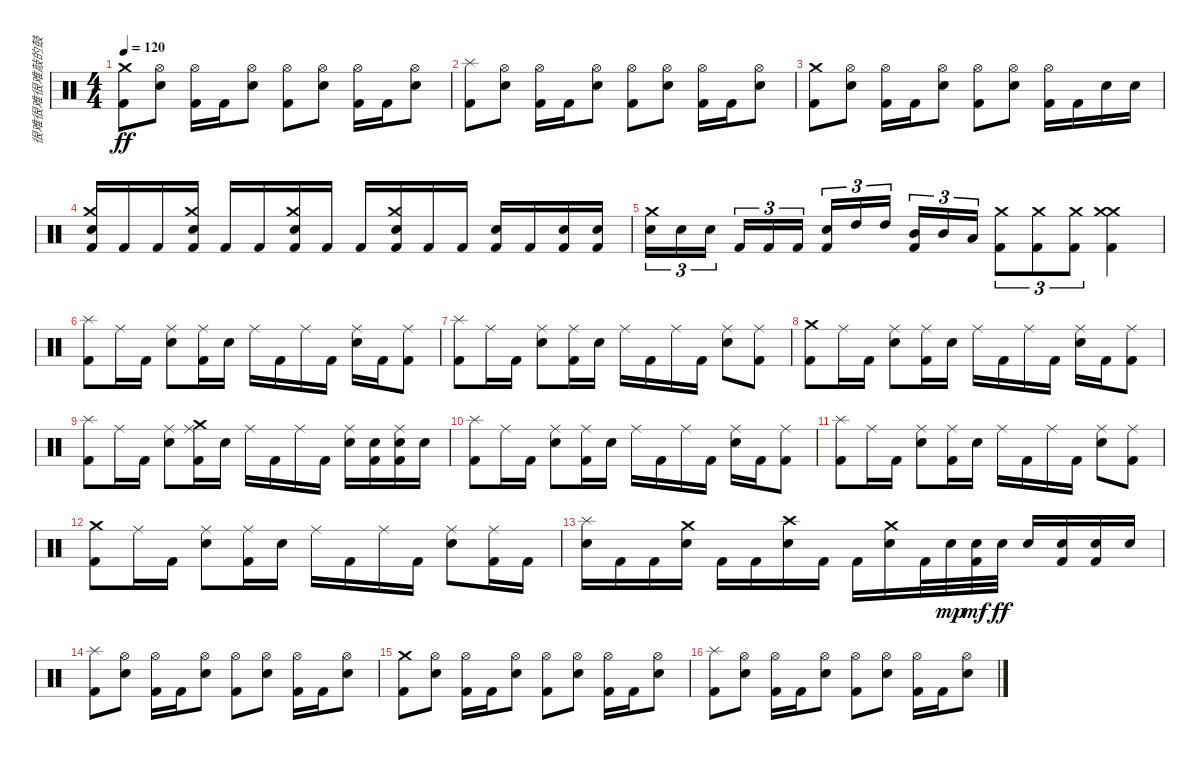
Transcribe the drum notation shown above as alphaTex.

\track ("很难很难很难敲的鼓" "很难很难很难敲的鼓") {instrument percussion}
\staff {score}
\articulation defaults
\ts (4 4)
\tempo 120
\clef neutral
\ks c
("Kick (hit) 2" "Crash medium (hit)").8{dy ff} ("Electric Snare (hit)" "Hi-Hat (open)").8 ("Kick (hit) 2" "Hi-Hat (open)").16 "Kick (hit) 2".16 ("Electric Snare (hit)" "Hi-Hat (open)").8 ("Kick (hit) 2" "Hi-Hat (open)").8 ("Electric Snare (hit)" "Hi-Hat (open)").8 ("Kick (hit) 2" "Hi-Hat (open)").16 "Kick (hit) 2".16 ("Electric Snare (hit)" "Hi-Hat (open)").8 |
("Kick (hit) 2" "Splash (hit)").8 ("Electric Snare (hit)" "Hi-Hat (open)").8 ("Kick (hit) 2" "Hi-Hat (open)").16 "Kick (hit) 2".16 ("Electric Snare (hit)" "Hi-Hat (open)").8 ("Kick (hit) 2" "Hi-Hat (open)").8 ("Electric Snare (hit)" "Hi-Hat (open)").8 ("Kick (hit) 2" "Hi-Hat (open)").16 "Kick (hit) 2".16 ("Electric Snare (hit)" "Hi-Hat (open)").8 |
("Kick (hit) 2" "Crash medium (hit)").8 ("Electric Snare (hit)" "Hi-Hat (open)").8 ("Kick (hit) 2" "Hi-Hat (open)").16 "Kick (hit) 2".16 ("Electric Snare (hit)" "Hi-Hat (open)").8 ("Kick (hit) 2" "Hi-Hat (open)").8 ("Electric Snare (hit)" "Hi-Hat (open)").8 ("Kick (hit) 2" "Hi-Hat (open)").16 "Kick (hit) 2".16 "Electric Snare (hit)".16 "Electric Snare (hit)".16 |
("Kick (hit) 2" "Electric Snare (hit)" "Crash medium (hit)").16 "Kick (hit) 2".16 "Kick (hit) 2".16 ("Kick (hit) 2" "Electric Snare (hit)" "Crash medium (hit)").16 "Kick (hit) 2".16 "Kick (hit) 2".16 ("Kick (hit) 2" "Electric Snare (hit)" "Crash medium (hit)").16 "Kick (hit) 2".16 "Kick (hit) 2".16 ("Kick (hit) 2" "Electric Snare (hit)" "Crash medium (hit)").16 "Kick (hit) 2".16 "Kick (hit) 2".16 ("Kick (hit) 2" "Electric Snare (hit)").16 "Kick (hit) 2".16 ("Kick (hit) 2" "Electric Snare (hit)").16 ("Kick (hit) 2" "Electric Snare (hit)").16 |
("Electric Snare (hit)" "Crash medium (hit)").16{tu (3 2)} "Electric Snare (hit)".16{tu (3 2)} "Electric Snare (hit)".16{tu (3 2) beam splitsecondary} "Kick (hit) 2".16{tu (3 2)} "Kick (hit) 2".16{tu (3 2)} "Kick (hit) 2".16{tu (3 2)} ("Kick (hit) 2" "Electric Snare (hit)").16{tu (3 2)} "High Tom (hit)".16{tu (3 2)} "High Tom (hit)".16{tu (3 2) beam splitsecondary} ("Kick (hit) 2" "Mid Tom (hit)").16{tu (3 2)} "Mid Tom (hit)".16{tu (3 2)} "Low Floor Tom (hit)".16{tu (3 2)} ("Kick (hit) 2" "Crash medium (hit)").8{tu (3 2)} ("Kick (hit) 2" "Crash medium (hit)").8{tu (3 2)} ("Kick (hit) 2" "Crash medium (hit)").8{tu (3 2)} ("Kick (hit) 2" "Crash medium (hit)" "Crash medium (hit)").4 |
("Kick (hit) 2" "Splash (hit)").8 "Ride (middle)".16 "Kick (hit) 2".16 ("Ride (middle)" "Electric Snare (hit)").8 ("Ride (middle)" "Kick (hit) 2").16 "Electric Snare (hit)".16 "Ride (middle)".16 "Kick (hit) 2".16 "Ride (middle)".16 "Kick (hit) 2".16 ("Ride (middle)" "Electric Snare (hit)").16 "Kick (hit) 2".16 ("Ride (middle)" "Kick (hit) 2").8 |
("Kick (hit) 2" "Splash (hit)").8 "Ride (middle)".16 "Kick (hit) 2".16 ("Ride (middle)" "Electric Snare (hit)").8 ("Ride (middle)" "Kick (hit) 2").16 "Electric Snare (hit)".16 "Ride (middle)".16 "Kick (hit) 2".16 "Ride (middle)".16 "Kick (hit) 2".16 ("Ride (middle)" "Electric Snare (hit)").8 ("Ride (middle)" "Kick (hit) 2").8 |
("Kick (hit) 2" "Crash medium (hit)").8 "Ride (middle)".16 "Kick (hit) 2".16 ("Ride (middle)" "Electric Snare (hit)").8 ("Ride (middle)" "Kick (hit) 2").16 "Electric Snare (hit)".16 "Ride (middle)".16 "Kick (hit) 2".16 "Ride (middle)".16 "Kick (hit) 2".16 ("Ride (middle)" "Electric Snare (hit)").16 "Kick (hit) 2".16 ("Ride (middle)" "Kick (hit) 2").8 |
("Kick (hit) 2" "Splash (hit)").8 "Ride (middle)".16 "Kick (hit) 2".16 ("Ride (middle)" "Electric Snare (hit)").8 ("Ride (middle)" "Kick (hit) 2" "Crash medium (hit)").16 "Electric Snare (hit)".16 "Ride (middle)".16 "Kick (hit) 2".16 "Ride (middle)".16 "Kick (hit) 2".16 ("Ride (middle)" "Electric Snare (hit)").16 ("Kick (hit) 2" "Electric Snare (hit)").16 ("Ride (middle)" "Kick (hit) 2" "Electric Snare (hit)").16 "Electric Snare (hit)".16 |
("Kick (hit) 2" "Splash (hit)").8 "Ride (middle)".16 "Kick (hit) 2".16 ("Ride (middle)" "Electric Snare (hit)").8 ("Ride (middle)" "Kick (hit) 2").16 "Electric Snare (hit)".16 "Ride (middle)".16 "Kick (hit) 2".16 "Ride (middle)".16 "Kick (hit) 2".16 ("Ride (middle)" "Electric Snare (hit)").16 "Kick (hit) 2".16 ("Ride (middle)" "Kick (hit) 2").8 |
("Kick (hit) 2" "Splash (hit)").8 "Ride (middle)".16 "Kick (hit) 2".16 ("Ride (middle)" "Electric Snare (hit)").8 ("Ride (middle)" "Kick (hit) 2").16 "Electric Snare (hit)".16 "Ride (middle)".16 "Kick (hit) 2".16 "Ride (middle)".16 "Kick (hit) 2".16 ("Ride (middle)" "Electric Snare (hit)").8 ("Ride (middle)" "Kick (hit) 2").8 |
("Kick (hit) 2" "Crash medium (hit)").8 "Ride (middle)".16 "Kick (hit) 2".16 ("Ride (middle)" "Electric Snare (hit)").8 ("Ride (middle)" "Kick (hit) 2").16 "Electric Snare (hit)".16 "Ride (middle)".16 "Kick (hit) 2".16 "Ride (middle)".16 "Kick (hit) 2".16 ("Ride (middle)" "Electric Snare (hit)").8 ("Ride (middle)" "Kick (hit) 2").16 "Kick (hit) 2".16 |
("Electric Snare (hit)" "Splash (hit)").16 "Kick (hit) 2".16 "Kick (hit) 2".16 ("Electric Snare (hit)" "Crash medium (hit)").16 "Kick (hit) 2".16 "Kick (hit) 2".16 ("Electric Snare (hit)" "Crash high (hit)").16 "Kick (hit) 2".16 "Kick (hit) 2".16 ("Electric Snare (hit)" "Crash medium (hit)").16 "Kick (hit) 2".32 "Electric Snare (hit)".32{dy mp} ("Kick (hit) 2" "Electric Snare (hit)").32{dy mf} "Electric Snare (hit)".32{dy ff} "Electric Snare (hit)".16 ("Kick (hit) 2" "Electric Snare (hit)").16 ("Kick (hit) 2" "Electric Snare (hit)").16 "Electric Snare (hit)".16 |
("Kick (hit) 2" "Splash (hit)").8 ("Electric Snare (hit)" "Hi-Hat (open)").8 ("Kick (hit) 2" "Hi-Hat (open)").16 "Kick (hit) 2".16 ("Electric Snare (hit)" "Hi-Hat (open)").8 ("Kick (hit) 2" "Hi-Hat (open)").8 ("Electric Snare (hit)" "Hi-Hat (open)").8 ("Kick (hit) 2" "Hi-Hat (open)").16 "Kick (hit) 2".16 ("Electric Snare (hit)" "Hi-Hat (open)").8 |
("Kick (hit) 2" "Crash medium (hit)").8 ("Electric Snare (hit)" "Hi-Hat (open)").8 ("Kick (hit) 2" "Hi-Hat (open)").16 "Kick (hit) 2".16 ("Electric Snare (hit)" "Hi-Hat (open)").8 ("Kick (hit) 2" "Hi-Hat (open)").8 ("Electric Snare (hit)" "Hi-Hat (open)").8 ("Kick (hit) 2" "Hi-Hat (open)").16 "Kick (hit) 2".16 ("Electric Snare (hit)" "Hi-Hat (open)").8 |
("Kick (hit) 2" "Splash (hit)").8 ("Electric Snare (hit)" "Hi-Hat (open)").8 ("Kick (hit) 2" "Hi-Hat (open)").16 "Kick (hit) 2".16 ("Electric Snare (hit)" "Hi-Hat (open)").8 ("Kick (hit) 2" "Hi-Hat (open)").8 ("Electric Snare (hit)" "Hi-Hat (open)").8 ("Kick (hit) 2" "Hi-Hat (open)").16 "Kick (hit) 2".16 ("Electric Snare (hit)" "Hi-Hat (open)").8
